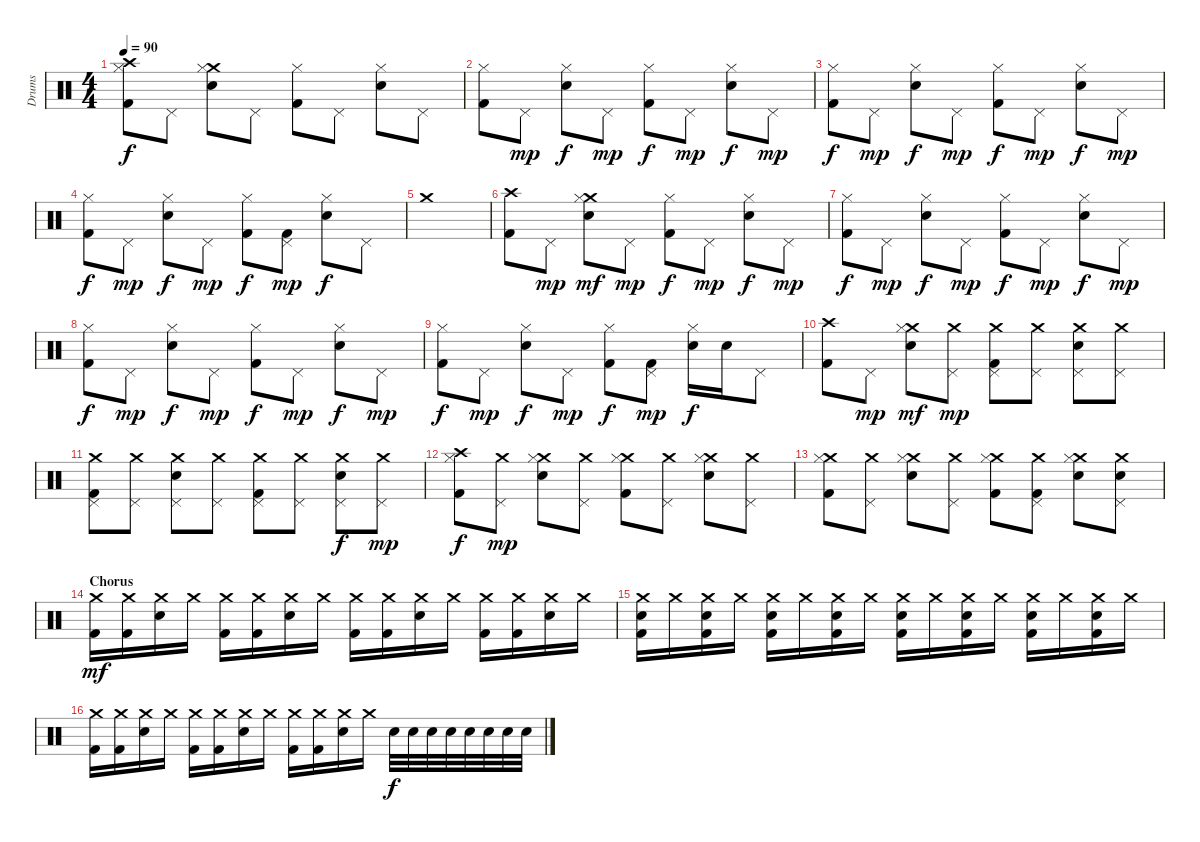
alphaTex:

\track ("Drums" "Drums") {instrument percussion}
\staff {score}
\articulation defaults
\ts (4 4)
\tempo 90
\clef neutral
\ks c
("Crash high (hit)" "Hi-Hat (closed)" "Kick (hit) 2").8{dy f} "Pedal Hi-Hat (hit)".8 ("Crash medium (hit)" "Hi-Hat (closed)" "Snare (hit) 2").8 "Pedal Hi-Hat (hit)".8 ("Hi-Hat (closed)" "Kick (hit) 2").8 "Pedal Hi-Hat (hit)".8 ("Hi-Hat (closed)" "Snare (hit) 2").8 "Pedal Hi-Hat (hit)".8 |
("Hi-Hat (closed)" "Kick (hit) 2").8 "Pedal Hi-Hat (hit)".8{dy mp} ("Hi-Hat (closed)" "Snare (hit) 2").8{dy f} "Pedal Hi-Hat (hit)".8{dy mp} ("Hi-Hat (closed)" "Kick (hit) 2").8{dy f} "Pedal Hi-Hat (hit)".8{dy mp} ("Hi-Hat (closed)" "Snare (hit) 2").8{dy f} "Pedal Hi-Hat (hit)".8{dy mp} |
("Hi-Hat (closed)" "Kick (hit) 2").8{dy f} "Pedal Hi-Hat (hit)".8{dy mp} ("Hi-Hat (closed)" "Snare (hit) 2").8{dy f} "Pedal Hi-Hat (hit)".8{dy mp} ("Hi-Hat (closed)" "Kick (hit) 2").8{dy f} "Pedal Hi-Hat (hit)".8{dy mp} ("Hi-Hat (closed)" "Snare (hit) 2").8{dy f} "Pedal Hi-Hat (hit)".8{dy mp} |
("Hi-Hat (closed)" "Kick (hit) 2").8{dy f} "Pedal Hi-Hat (hit)".8{dy mp} ("Hi-Hat (closed)" "Snare (hit) 2").8{dy f} "Pedal Hi-Hat (hit)".8{dy mp} ("Hi-Hat (closed)" "Kick (hit) 2").8{dy f} ("Pedal Hi-Hat (hit)" "Kick (hit) 2").8{dy mp} ("Hi-Hat (closed)" "Snare (hit) 2").8{dy f} "Pedal Hi-Hat (hit)".8 |
"Crash medium (hit)".1 |
("Crash high (hit)" "Kick (hit) 2").8 "Pedal Hi-Hat (hit)".8{dy mp} ("Crash medium (hit)" "Hi-Hat (closed)" "Snare (hit) 2").8{dy mf} "Pedal Hi-Hat (hit)".8{dy mp} ("Hi-Hat (closed)" "Kick (hit) 2").8{dy f} "Pedal Hi-Hat (hit)".8{dy mp} ("Hi-Hat (closed)" "Snare (hit) 2").8{dy f} "Pedal Hi-Hat (hit)".8{dy mp} |
("Hi-Hat (closed)" "Kick (hit) 2").8{dy f} "Pedal Hi-Hat (hit)".8{dy mp} ("Hi-Hat (closed)" "Snare (hit) 2").8{dy f} "Pedal Hi-Hat (hit)".8{dy mp} ("Hi-Hat (closed)" "Kick (hit) 2").8{dy f} "Pedal Hi-Hat (hit)".8{dy mp} ("Hi-Hat (closed)" "Snare (hit) 2").8{dy f} "Pedal Hi-Hat (hit)".8{dy mp} |
("Hi-Hat (closed)" "Kick (hit) 2").8{dy f} "Pedal Hi-Hat (hit)".8{dy mp} ("Hi-Hat (closed)" "Snare (hit) 2").8{dy f} "Pedal Hi-Hat (hit)".8{dy mp} ("Hi-Hat (closed)" "Kick (hit) 2").8{dy f} "Pedal Hi-Hat (hit)".8{dy mp} ("Hi-Hat (closed)" "Snare (hit) 2").8{dy f} "Pedal Hi-Hat (hit)".8{dy mp} |
("Hi-Hat (closed)" "Kick (hit) 2").8{dy f} "Pedal Hi-Hat (hit)".8{dy mp} ("Hi-Hat (closed)" "Snare (hit) 2").8{dy f} "Pedal Hi-Hat (hit)".8{dy mp} ("Hi-Hat (closed)" "Kick (hit) 2").8{dy f} ("Pedal Hi-Hat (hit)" "Kick (hit) 2").8{dy mp} ("Hi-Hat (closed)" "Snare (hit) 2").16{dy f} "Snare (hit) 2".16 "Pedal Hi-Hat (hit)".8 |
("Crash high (hit)" "Kick (hit) 2").8 "Pedal Hi-Hat (hit)".8{dy mp} ("Crash medium (hit)" "Hi-Hat (closed)" "Snare (hit) 2").8{dy mf} ("Crash medium (hit)" "Pedal Hi-Hat (hit)").8{dy mp} ("Crash medium (hit)" "Pedal Hi-Hat (hit)" "Kick (hit) 2").8 ("Crash medium (hit)" "Pedal Hi-Hat (hit)").8 ("Crash medium (hit)" "Pedal Hi-Hat (hit)" "Snare (hit) 2").8 ("Crash medium (hit)" "Pedal Hi-Hat (hit)").8 |
("Crash medium (hit)" "Pedal Hi-Hat (hit)" "Kick (hit) 2").8 ("Crash medium (hit)" "Pedal Hi-Hat (hit)").8 ("Crash medium (hit)" "Pedal Hi-Hat (hit)" "Snare (hit) 2").8 ("Crash medium (hit)" "Pedal Hi-Hat (hit)").8 ("Crash medium (hit)" "Pedal Hi-Hat (hit)" "Kick (hit) 2").8 ("Crash medium (hit)" "Pedal Hi-Hat (hit)").8 ("Crash medium (hit)" "Pedal Hi-Hat (hit)" "Snare (hit) 2").8{dy f} ("Crash medium (hit)" "Pedal Hi-Hat (hit)").8{dy mp} |
("Crash high (hit)" "Hi-Hat (closed)" "Kick (hit) 2").8{dy f} ("Crash medium (hit)" "Pedal Hi-Hat (hit)").8{dy mp} ("Crash medium (hit)" "Hi-Hat (closed)" "Snare (hit) 2").8 ("Crash medium (hit)" "Pedal Hi-Hat (hit)").8 ("Crash medium (hit)" "Hi-Hat (closed)" "Kick (hit) 2").8 ("Crash medium (hit)" "Pedal Hi-Hat (hit)").8 ("Crash medium (hit)" "Hi-Hat (closed)" "Snare (hit) 2").8 ("Crash medium (hit)" "Pedal Hi-Hat (hit)").8 |
("Crash medium (hit)" "Hi-Hat (closed)" "Kick (hit) 2").8 ("Crash medium (hit)" "Pedal Hi-Hat (hit)").8 ("Crash medium (hit)" "Hi-Hat (closed)" "Snare (hit) 2").8 ("Crash medium (hit)" "Pedal Hi-Hat (hit)").8 ("Crash medium (hit)" "Hi-Hat (closed)" "Kick (hit) 2").8 ("Crash medium (hit)" "Pedal Hi-Hat (hit)" "Kick (hit) 2").8 ("Crash medium (hit)" "Hi-Hat (closed)" "Snare (hit) 2").8 ("Crash medium (hit)" "Pedal Hi-Hat (hit)" "Snare (hit) 2").8 |
\section ("" "Chorus")
("Crash medium (hit)" "Kick (hit) 2").16{dy mf} ("Crash medium (hit)" "Kick (hit) 2").16 ("Crash medium (hit)" "Snare (hit) 2").16 "Crash medium (hit)".16 ("Crash medium (hit)" "Kick (hit) 2").16 ("Crash medium (hit)" "Kick (hit) 2").16 ("Crash medium (hit)" "Snare (hit) 2").16 "Crash medium (hit)".16 ("Crash medium (hit)" "Kick (hit) 2").16 ("Crash medium (hit)" "Kick (hit) 2").16 ("Crash medium (hit)" "Snare (hit) 2").16 "Crash medium (hit)".16 ("Crash medium (hit)" "Kick (hit) 2").16 ("Crash medium (hit)" "Kick (hit) 2").16 ("Crash medium (hit)" "Snare (hit) 2").16 "Crash medium (hit)".16 |
("Crash medium (hit)" "Snare (hit) 2" "Kick (hit) 2").16 "Crash medium (hit)".16 ("Crash medium (hit)" "Snare (hit) 2" "Kick (hit) 2").16 "Crash medium (hit)".16 ("Crash medium (hit)" "Snare (hit) 2" "Kick (hit) 2").16 "Crash medium (hit)".16 ("Crash medium (hit)" "Snare (hit) 2" "Kick (hit) 2").16 "Crash medium (hit)".16 ("Crash medium (hit)" "Snare (hit) 2" "Kick (hit) 2").16 "Crash medium (hit)".16 ("Crash medium (hit)" "Snare (hit) 2" "Kick (hit) 2").16 "Crash medium (hit)".16 ("Crash medium (hit)" "Snare (hit) 2" "Kick (hit) 2").16 "Crash medium (hit)".16 ("Crash medium (hit)" "Snare (hit) 2" "Kick (hit) 2").16 "Crash medium (hit)".16 |
("Crash medium (hit)" "Kick (hit) 2").16 ("Crash medium (hit)" "Kick (hit) 2").16 ("Crash medium (hit)" "Snare (hit) 2").16 "Crash medium (hit)".16 ("Crash medium (hit)" "Kick (hit) 2").16 ("Crash medium (hit)" "Kick (hit) 2").16 ("Crash medium (hit)" "Snare (hit) 2").16 "Crash medium (hit)".16 ("Crash medium (hit)" "Kick (hit) 2").16 ("Crash medium (hit)" "Kick (hit) 2").16 ("Crash medium (hit)" "Snare (hit) 2").16 "Crash medium (hit)".16 "Snare (hit) 2".32{dy f} "Snare (hit) 2".32 "Snare (hit) 2".32 "Snare (hit) 2".32 "Snare (hit) 2".32 "Snare (hit) 2".32 "Snare (hit) 2".32 "Snare (hit) 2".32
